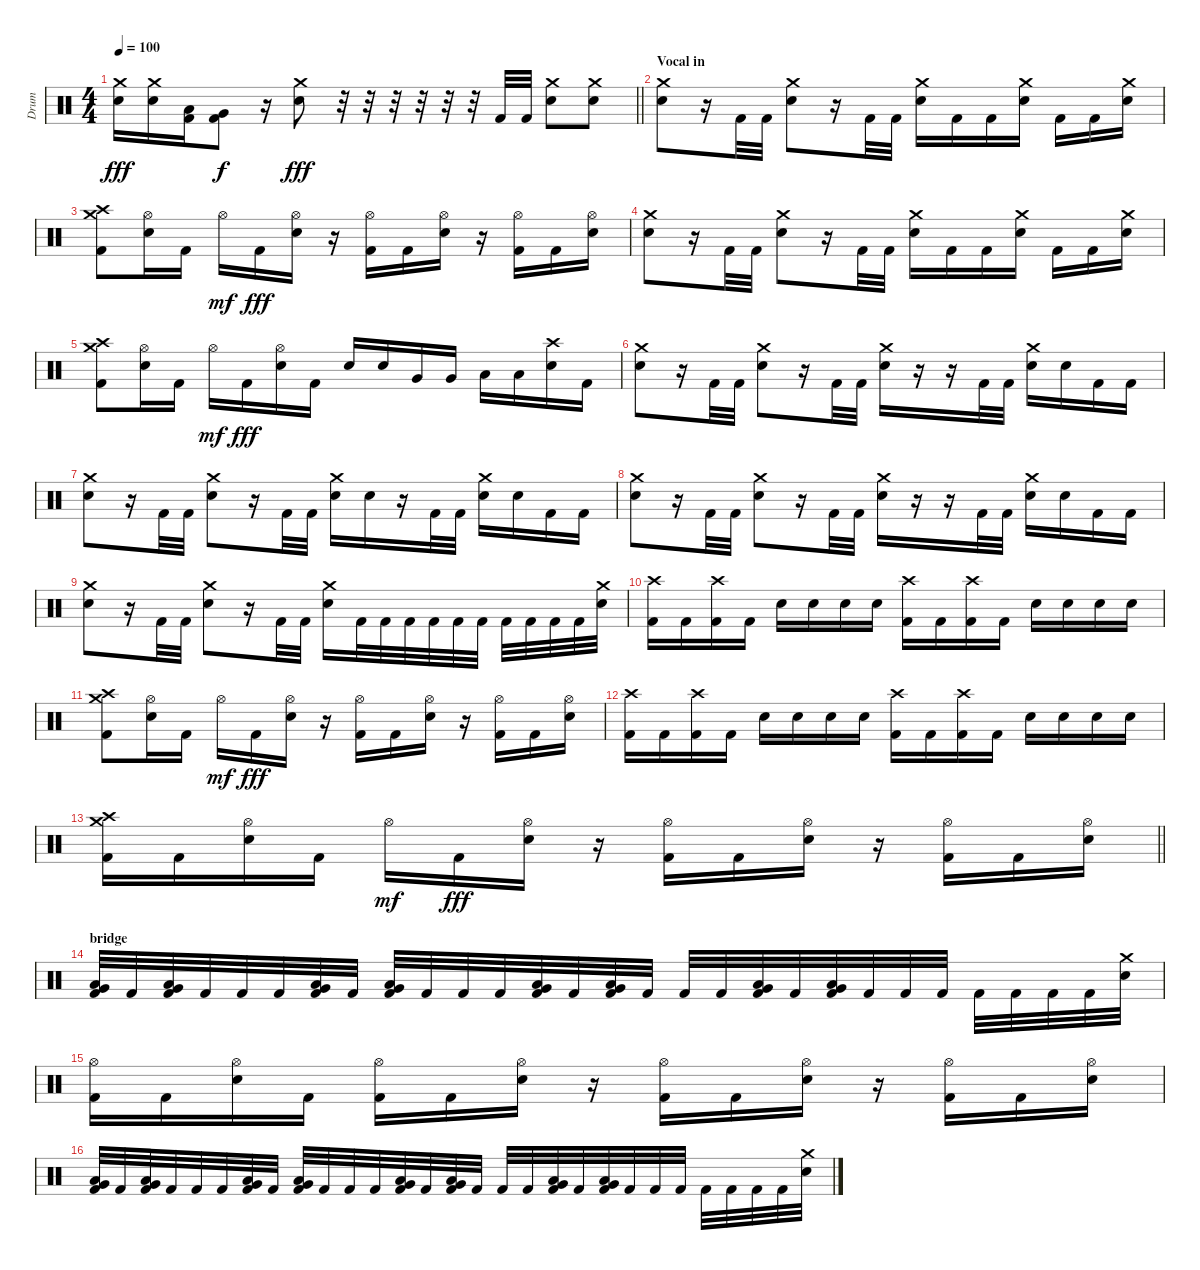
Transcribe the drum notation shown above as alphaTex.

\track ("Drum" "Drum") {instrument percussion}
\staff {score}
\articulation defaults
\ts (4 4)
\tempo 100
\clef neutral
\barLineRight lightlight
\ks c
("Crash medium (hit)" "Electric Snare (hit)").16{dy fff} ("Crash medium (hit)" "Electric Snare (hit)").16 ("Low Tom (hit)" "Kick (hit) 2").16 ("Very Low Tom (hit)" "Kick (hit) 2").8{dy f} r.16 ("Crash medium (hit)" "Electric Snare (hit)").8{dy fff} r.32 r.32 r.32 r.32 r.32 r.32 "Kick (hit) 2".32 "Kick (hit) 2".32 ("Crash medium (hit)" "Electric Snare (hit)").8 ("Crash medium (hit)" "Electric Snare (hit)").8 |
\section ("" "Vocal in")
("Crash medium (hit)" "Electric Snare (hit)").8 r.16 "Kick (hit) 2".32 "Kick (hit) 2".32 ("Crash medium (hit)" "Electric Snare (hit)").8 r.16 "Kick (hit) 2".32 "Kick (hit) 2".32 ("Crash medium (hit)" "Electric Snare (hit)").16 "Kick (hit) 2".16 "Kick (hit) 2".16 ("Crash medium (hit)" "Electric Snare (hit)").16 "Kick (hit) 2".16 "Kick (hit) 2".16 ("Crash medium (hit)" "Electric Snare (hit)").16 |
("Crash medium (hit)" "Crash high (hit)" "Kick (hit) 2").8 ("Hi-Hat (open)" "Electric Snare (hit)").16 "Kick (hit) 2".16 "Hi-Hat (open)".16{dy mf} "Kick (hit) 2".16{dy fff} ("Hi-Hat (open)" "Electric Snare (hit)").16 r.16 ("Hi-Hat (open)" "Kick (hit) 2").16 "Kick (hit) 2".16 ("Hi-Hat (open)" "Electric Snare (hit)").16 r.16 ("Hi-Hat (open)" "Kick (hit) 2").16 "Kick (hit) 2".16 ("Hi-Hat (open)" "Electric Snare (hit)").16 |
("Crash medium (hit)" "Electric Snare (hit)").8 r.16 "Kick (hit) 2".32 "Kick (hit) 2".32 ("Crash medium (hit)" "Electric Snare (hit)").8 r.16 "Kick (hit) 2".32 "Kick (hit) 2".32 ("Crash medium (hit)" "Electric Snare (hit)").16 "Kick (hit) 2".16 "Kick (hit) 2".16 ("Crash medium (hit)" "Electric Snare (hit)").16 "Kick (hit) 2".16 "Kick (hit) 2".16 ("Crash medium (hit)" "Electric Snare (hit)").16 |
("Crash medium (hit)" "Crash high (hit)" "Kick (hit) 2").8 ("Hi-Hat (open)" "Electric Snare (hit)").16 "Kick (hit) 2".16 "Hi-Hat (open)".16{dy mf} "Kick (hit) 2".16{dy fff} ("Hi-Hat (open)" "Electric Snare (hit)").16 "Kick (hit) 2".16 "Electric Snare (hit)".16 "Electric Snare (hit)".16 "Very Low Tom (hit)".16 "Very Low Tom (hit)".16 "Low Floor Tom (hit)".16 "Low Floor Tom (hit)".16 ("Crash high (hit)" "Electric Snare (hit)").16 "Kick (hit) 2".16 |
("Crash medium (hit)" "Electric Snare (hit)").8 r.16 "Kick (hit) 2".32 "Kick (hit) 2".32 ("Crash medium (hit)" "Electric Snare (hit)").8 r.16 "Kick (hit) 2".32 "Kick (hit) 2".32 ("Crash medium (hit)" "Electric Snare (hit)").16 r.16 r.16 "Kick (hit) 2".32 "Kick (hit) 2".32 ("Crash medium (hit)" "Electric Snare (hit)").16 "Electric Snare (hit)".16 "Kick (hit) 2".16 "Kick (hit) 2".16 |
("Crash medium (hit)" "Electric Snare (hit)").8 r.16 "Kick (hit) 2".32 "Kick (hit) 2".32 ("Crash medium (hit)" "Electric Snare (hit)").8 r.16 "Kick (hit) 2".32 "Kick (hit) 2".32 ("Crash medium (hit)" "Electric Snare (hit)").16 "Electric Snare (hit)".16 r.16 "Kick (hit) 2".32 "Kick (hit) 2".32 ("Crash medium (hit)" "Electric Snare (hit)").16 "Electric Snare (hit)".16 "Kick (hit) 2".16 "Kick (hit) 2".16 |
("Crash medium (hit)" "Electric Snare (hit)").8 r.16 "Kick (hit) 2".32 "Kick (hit) 2".32 ("Crash medium (hit)" "Electric Snare (hit)").8 r.16 "Kick (hit) 2".32 "Kick (hit) 2".32 ("Crash medium (hit)" "Electric Snare (hit)").16 r.16 r.16 "Kick (hit) 2".32 "Kick (hit) 2".32 ("Crash medium (hit)" "Electric Snare (hit)").16 "Electric Snare (hit)".16 "Kick (hit) 2".16 "Kick (hit) 2".16 |
("Crash medium (hit)" "Electric Snare (hit)").8 r.16 "Kick (hit) 2".32 "Kick (hit) 2".32 ("Crash medium (hit)" "Electric Snare (hit)").8 r.16 "Kick (hit) 2".32 "Kick (hit) 2".32 ("Crash medium (hit)" "Electric Snare (hit)").16 "Kick (hit) 2".32 "Kick (hit) 2".32 "Kick (hit) 2".32 "Kick (hit) 2".32 "Kick (hit) 2".32 "Kick (hit) 2".32 "Kick (hit) 2".32 "Kick (hit) 2".32 "Kick (hit) 2".32 "Kick (hit) 2".32 ("Crash medium (hit)" "Electric Snare (hit)").32 |
("Crash high (hit)" "Kick (hit) 2").16 "Kick (hit) 2".16 ("Crash high (hit)" "Kick (hit) 2").16 "Kick (hit) 2".16 "Electric Snare (hit)".16 "Electric Snare (hit)".16 "Electric Snare (hit)".16 "Electric Snare (hit)".16 ("Crash high (hit)" "Kick (hit) 2").16 "Kick (hit) 2".16 ("Crash high (hit)" "Kick (hit) 2").16 "Kick (hit) 2".16 "Electric Snare (hit)".16 "Electric Snare (hit)".16 "Electric Snare (hit)".16 "Electric Snare (hit)".16 |
("Crash medium (hit)" "Crash high (hit)" "Kick (hit) 2").8 ("Hi-Hat (open)" "Electric Snare (hit)").16 "Kick (hit) 2".16 "Hi-Hat (open)".16{dy mf} "Kick (hit) 2".16{dy fff} ("Hi-Hat (open)" "Electric Snare (hit)").16 r.16 ("Hi-Hat (open)" "Kick (hit) 2").16 "Kick (hit) 2".16 ("Hi-Hat (open)" "Electric Snare (hit)").16 r.16 ("Hi-Hat (open)" "Kick (hit) 2").16 "Kick (hit) 2".16 ("Hi-Hat (open)" "Electric Snare (hit)").16 |
("Crash high (hit)" "Kick (hit) 2").16 "Kick (hit) 2".16 ("Crash high (hit)" "Kick (hit) 2").16 "Kick (hit) 2".16 "Electric Snare (hit)".16 "Electric Snare (hit)".16 "Electric Snare (hit)".16 "Electric Snare (hit)".16 ("Crash high (hit)" "Kick (hit) 2").16 "Kick (hit) 2".16 ("Crash high (hit)" "Kick (hit) 2").16 "Kick (hit) 2".16 "Electric Snare (hit)".16 "Electric Snare (hit)".16 "Electric Snare (hit)".16 "Electric Snare (hit)".16 |
\barLineRight lightlight
("Crash medium (hit)" "Crash high (hit)" "Kick (hit) 2").16 "Kick (hit) 2".16 ("Hi-Hat (open)" "Electric Snare (hit)").16 "Kick (hit) 2".16 "Hi-Hat (open)".16{dy mf} "Kick (hit) 2".16{dy fff} ("Hi-Hat (open)" "Electric Snare (hit)").16 r.16 ("Hi-Hat (open)" "Kick (hit) 2").16 "Kick (hit) 2".16 ("Hi-Hat (open)" "Electric Snare (hit)").16 r.16 ("Hi-Hat (open)" "Kick (hit) 2").16 "Kick (hit) 2".16 ("Hi-Hat (open)" "Electric Snare (hit)").16 |
\section ("" "bridge")
("Very Low Tom (hit)" "Low Floor Tom (hit)" "Kick (hit) 2").32 "Kick (hit) 2".32 ("Very Low Tom (hit)" "Low Floor Tom (hit)" "Kick (hit) 2").32 "Kick (hit) 2".32 "Kick (hit) 2".32 "Kick (hit) 2".32 ("Very Low Tom (hit)" "Low Floor Tom (hit)" "Kick (hit) 2").32 "Kick (hit) 2".32 ("Very Low Tom (hit)" "Low Floor Tom (hit)" "Kick (hit) 2").32 "Kick (hit) 2".32 "Kick (hit) 2".32 "Kick (hit) 2".32 ("Very Low Tom (hit)" "Low Floor Tom (hit)" "Kick (hit) 2").32 "Kick (hit) 2".32 ("Very Low Tom (hit)" "Low Floor Tom (hit)" "Kick (hit) 2").32 "Kick (hit) 2".32 "Kick (hit) 2".32 "Kick (hit) 2".32 ("Very Low Tom (hit)" "Low Floor Tom (hit)" "Kick (hit) 2").32 "Kick (hit) 2".32 ("Very Low Tom (hit)" "Low Floor Tom (hit)" "Kick (hit) 2").32 "Kick (hit) 2".32 "Kick (hit) 2".32 "Kick (hit) 2".32 "Kick (hit) 2".32 "Kick (hit) 2".32 "Kick (hit) 2".32 "Kick (hit) 2".32 ("Crash medium (hit)" "Electric Snare (hit)").32 |
("Hi-Hat (open)" "Kick (hit) 2").16 "Kick (hit) 2".16 ("Hi-Hat (open)" "Electric Snare (hit)").16 "Kick (hit) 2".16 ("Hi-Hat (open)" "Kick (hit) 2").16 "Kick (hit) 2".16 ("Hi-Hat (open)" "Electric Snare (hit)").16 r.16 ("Hi-Hat (open)" "Kick (hit) 2").16 "Kick (hit) 2".16 ("Hi-Hat (open)" "Electric Snare (hit)").16 r.16 ("Hi-Hat (open)" "Kick (hit) 2").16 "Kick (hit) 2".16 ("Hi-Hat (open)" "Electric Snare (hit)").16 |
("Very Low Tom (hit)" "Low Floor Tom (hit)" "Kick (hit) 2").32 "Kick (hit) 2".32 ("Very Low Tom (hit)" "Low Floor Tom (hit)" "Kick (hit) 2").32 "Kick (hit) 2".32 "Kick (hit) 2".32 "Kick (hit) 2".32 ("Very Low Tom (hit)" "Low Floor Tom (hit)" "Kick (hit) 2").32 "Kick (hit) 2".32 ("Very Low Tom (hit)" "Low Floor Tom (hit)" "Kick (hit) 2").32 "Kick (hit) 2".32 "Kick (hit) 2".32 "Kick (hit) 2".32 ("Very Low Tom (hit)" "Low Floor Tom (hit)" "Kick (hit) 2").32 "Kick (hit) 2".32 ("Very Low Tom (hit)" "Low Floor Tom (hit)" "Kick (hit) 2").32 "Kick (hit) 2".32 "Kick (hit) 2".32 "Kick (hit) 2".32 ("Very Low Tom (hit)" "Low Floor Tom (hit)" "Kick (hit) 2").32 "Kick (hit) 2".32 ("Very Low Tom (hit)" "Low Floor Tom (hit)" "Kick (hit) 2").32 "Kick (hit) 2".32 "Kick (hit) 2".32 "Kick (hit) 2".32 "Kick (hit) 2".32 "Kick (hit) 2".32 "Kick (hit) 2".32 "Kick (hit) 2".32 ("Crash medium (hit)" "Electric Snare (hit)").32
